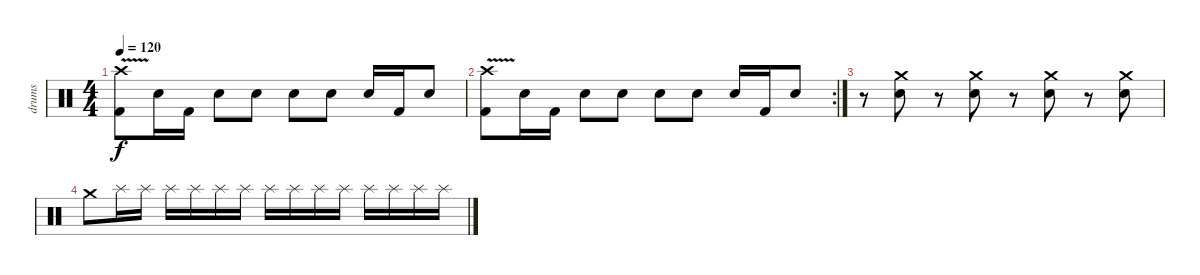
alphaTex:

\track ("drums" "drums") {instrument percussion}
\staff {score}
\articulation defaults
\ts (4 4)
\tempo 120
\clef neutral
\ks c
("Crash high (hit)" "Kick (hit) 2"{v}).8{dy f} "Electric Snare (hit)".16 "Kick (hit) 2".16 "Electric Snare (hit)".8 "Electric Snare (hit)".8 "Electric Snare (hit)".8 "Electric Snare (hit)".8 "Electric Snare (hit)".16 "Kick (hit) 2".16 "Electric Snare (hit)".8 |
\rc 2
("Crash high (hit)" "Kick (hit) 2"{v}).8 "Electric Snare (hit)".16 "Kick (hit) 2".16 "Electric Snare (hit)".8 "Electric Snare (hit)".8 "Electric Snare (hit)".8 "Electric Snare (hit)".8 "Electric Snare (hit)".16 "Kick (hit) 2".16 "Electric Snare (hit)".8 |
r.8 ("Crash medium (hit)" "Electric Snare (hit)").8 r.8 ("Crash medium (hit)" "Electric Snare (hit)").8 r.8 ("Crash medium (hit)" "Electric Snare (hit)").8 r.8 ("Crash medium (hit)" "Electric Snare (hit)").8 |
"Crash medium (hit)".8 "Splash (hit)".16 "Splash (hit)".16 "Splash (hit)".16 "Splash (hit)".16 "Splash (hit)".16 "Splash (hit)".16 "Splash (hit)".16 "Splash (hit)".16 "Splash (hit)".16 "Splash (hit)".16 "Splash (hit)".16 "Splash (hit)".16 "Splash (hit)".16 "Splash (hit)".16
